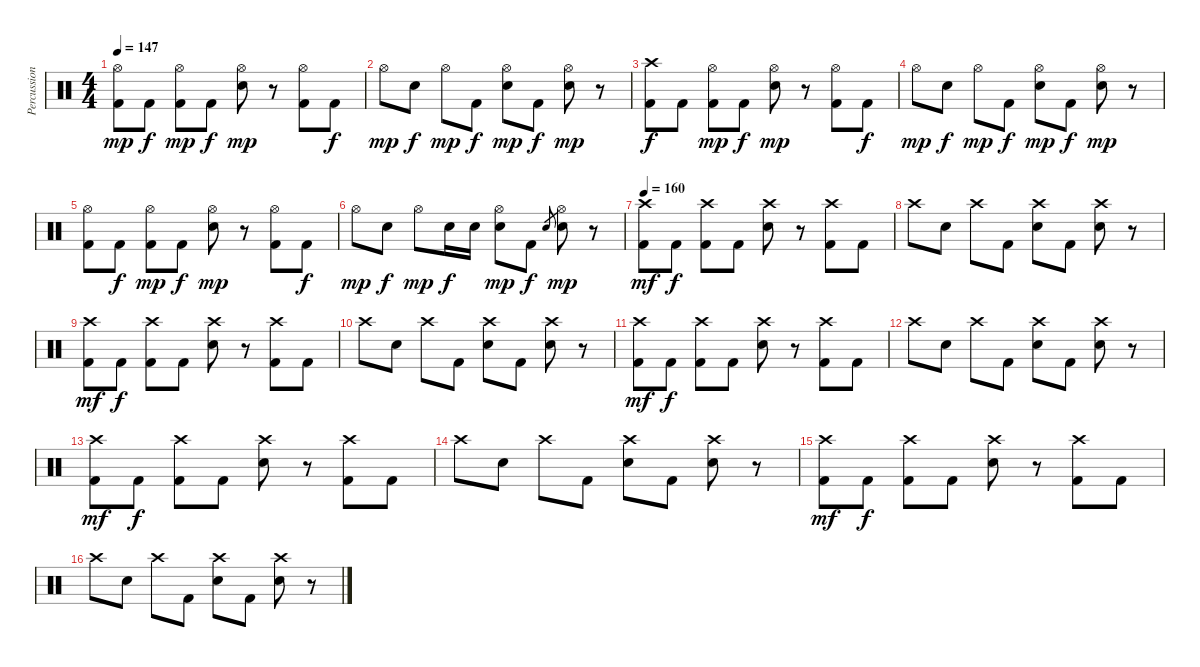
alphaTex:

\track ("Percussion" "Percussion") {instrument percussion}
\staff {score}
\articulation defaults
\ts (4 4)
\tempo 147
\clef neutral
\ks c
("Hi-Hat (open)" "Kick (hit) 2").8{dy mp} "Kick (hit) 2".8{dy f} ("Hi-Hat (open)" "Kick (hit) 2").8{dy mp} "Kick (hit) 2".8{dy f} ("Hi-Hat (open)" "Electric Snare (hit)").8{dy mp} r.8 ("Hi-Hat (open)" "Kick (hit) 2").8 "Kick (hit) 2".8{dy f} |
"Hi-Hat (open)".8{dy mp} "Electric Snare (hit)".8{dy f} "Hi-Hat (open)".8{dy mp} "Kick (hit) 2".8{dy f} ("Hi-Hat (open)" "Electric Snare (hit)").8{dy mp} "Kick (hit) 2".8{dy f} ("Hi-Hat (open)" "Electric Snare (hit)").8{dy mp} r.8 |
("Crash high (hit)" "Kick (hit) 2").8{dy f} "Kick (hit) 2".8 ("Hi-Hat (open)" "Kick (hit) 2").8{dy mp} "Kick (hit) 2".8{dy f} ("Hi-Hat (open)" "Electric Snare (hit)").8{dy mp} r.8 ("Hi-Hat (open)" "Kick (hit) 2").8 "Kick (hit) 2".8{dy f} |
"Hi-Hat (open)".8{dy mp} "Electric Snare (hit)".8{dy f} "Hi-Hat (open)".8{dy mp} "Kick (hit) 2".8{dy f} ("Hi-Hat (open)" "Electric Snare (hit)").8{dy mp} "Kick (hit) 2".8{dy f} ("Hi-Hat (open)" "Electric Snare (hit)").8{dy mp} r.8 |
("Hi-Hat (open)" "Kick (hit) 2").8 "Kick (hit) 2".8{dy f} ("Hi-Hat (open)" "Kick (hit) 2").8{dy mp} "Kick (hit) 2".8{dy f} ("Hi-Hat (open)" "Electric Snare (hit)").8{dy mp} r.8 ("Hi-Hat (open)" "Kick (hit) 2").8 "Kick (hit) 2".8{dy f} |
"Hi-Hat (open)".8{dy mp} "Electric Snare (hit)".8{dy f} "Hi-Hat (open)".8{dy mp} "Electric Snare (hit)".16{dy f} "Electric Snare (hit)".16 ("Hi-Hat (open)" "Electric Snare (hit)").8{dy mp} "Kick (hit) 2".8{dy f} "Electric Snare (hit)".8{gr} ("Hi-Hat (open)" "Electric Snare (hit)").8{dy mp} r.8 |
\tempo 160
("Crash high (hit)" "Kick (hit) 2").8{dy mf} "Kick (hit) 2".8{dy f} ("Crash high (hit)" "Kick (hit) 2").8 "Kick (hit) 2".8 ("Crash high (hit)" "Electric Snare (hit)").8 r.8 ("Crash high (hit)" "Kick (hit) 2").8 "Kick (hit) 2".8 |
"Crash high (hit)".8 "Electric Snare (hit)".8 "Crash high (hit)".8 "Kick (hit) 2".8 ("Crash high (hit)" "Electric Snare (hit)").8 "Kick (hit) 2".8 ("Crash high (hit)" "Electric Snare (hit)").8 r.8 |
("Crash high (hit)" "Kick (hit) 2").8{dy mf} "Kick (hit) 2".8{dy f} ("Crash high (hit)" "Kick (hit) 2").8 "Kick (hit) 2".8 ("Crash high (hit)" "Electric Snare (hit)").8 r.8 ("Crash high (hit)" "Kick (hit) 2").8 "Kick (hit) 2".8 |
"Crash high (hit)".8 "Electric Snare (hit)".8 "Crash high (hit)".8 "Kick (hit) 2".8 ("Crash high (hit)" "Electric Snare (hit)").8 "Kick (hit) 2".8 ("Crash high (hit)" "Electric Snare (hit)").8 r.8 |
("Crash high (hit)" "Kick (hit) 2").8{dy mf} "Kick (hit) 2".8{dy f} ("Crash high (hit)" "Kick (hit) 2").8 "Kick (hit) 2".8 ("Crash high (hit)" "Electric Snare (hit)").8 r.8 ("Crash high (hit)" "Kick (hit) 2").8 "Kick (hit) 2".8 |
"Crash high (hit)".8 "Electric Snare (hit)".8 "Crash high (hit)".8 "Kick (hit) 2".8 ("Crash high (hit)" "Electric Snare (hit)").8 "Kick (hit) 2".8 ("Crash high (hit)" "Electric Snare (hit)").8 r.8 |
("Crash high (hit)" "Kick (hit) 2").8{dy mf} "Kick (hit) 2".8{dy f} ("Crash high (hit)" "Kick (hit) 2").8 "Kick (hit) 2".8 ("Crash high (hit)" "Electric Snare (hit)").8 r.8 ("Crash high (hit)" "Kick (hit) 2").8 "Kick (hit) 2".8 |
"Crash high (hit)".8 "Electric Snare (hit)".8 "Crash high (hit)".8 "Kick (hit) 2".8 ("Crash high (hit)" "Electric Snare (hit)").8 "Kick (hit) 2".8 ("Crash high (hit)" "Electric Snare (hit)").8 r.8 |
("Crash high (hit)" "Kick (hit) 2").8{dy mf} "Kick (hit) 2".8{dy f} ("Crash high (hit)" "Kick (hit) 2").8 "Kick (hit) 2".8 ("Crash high (hit)" "Electric Snare (hit)").8 r.8 ("Crash high (hit)" "Kick (hit) 2").8 "Kick (hit) 2".8 |
"Crash high (hit)".8 "Electric Snare (hit)".8 "Crash high (hit)".8 "Kick (hit) 2".8 ("Crash high (hit)" "Electric Snare (hit)").8 "Kick (hit) 2".8 ("Crash high (hit)" "Electric Snare (hit)").8 r.8
